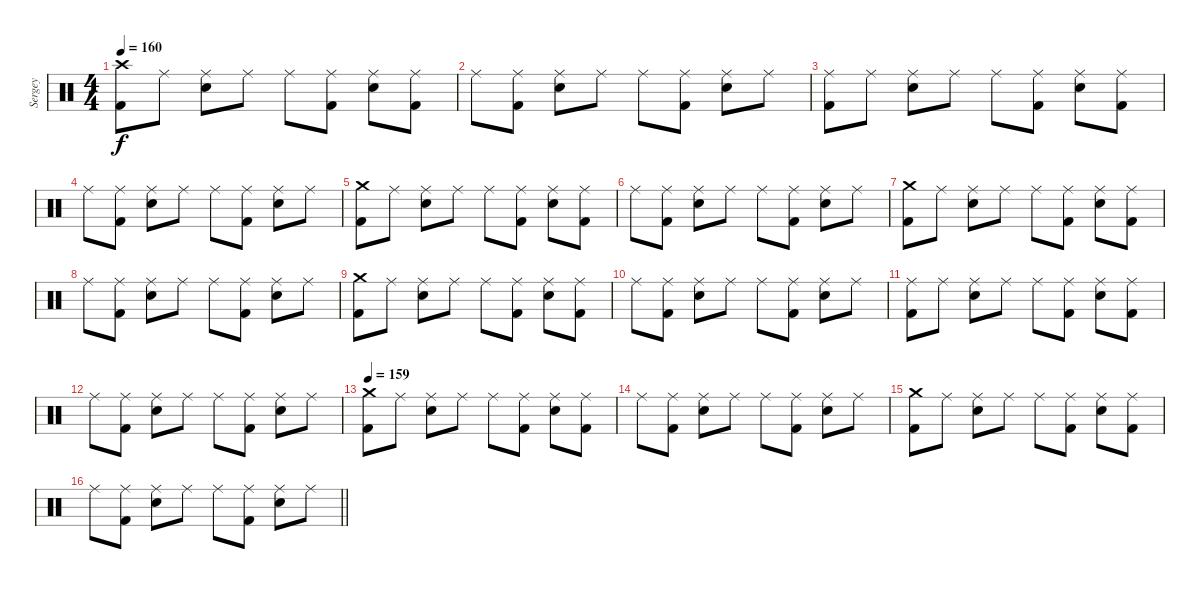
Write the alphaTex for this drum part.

\track ("Sergey" "Sergey") {instrument percussion}
\staff {score}
\articulation defaults
\ts (4 4)
\section ("" "")
\tempo 160
\clef neutral
\ks c
("Crash high (hit)" "Kick (hit) 2").8{dy f} "Ride (middle)".8 ("Ride (middle)" "Electric Snare (hit)").8 "Ride (middle)".8 "Ride (middle)".8 ("Ride (middle)" "Kick (hit) 2").8 ("Ride (middle)" "Electric Snare (hit)").8 ("Ride (middle)" "Kick (hit) 2").8 |
"Ride (middle)".8 ("Ride (middle)" "Kick (hit) 2").8 ("Ride (middle)" "Electric Snare (hit)").8 "Ride (middle)".8 "Ride (middle)".8 ("Ride (middle)" "Kick (hit) 2").8 ("Ride (middle)" "Electric Snare (hit)").8 "Ride (middle)".8 |
("Ride (middle)" "Kick (hit) 2").8 "Ride (middle)".8 ("Ride (middle)" "Electric Snare (hit)").8 "Ride (middle)".8 "Ride (middle)".8 ("Ride (middle)" "Kick (hit) 2").8 ("Ride (middle)" "Electric Snare (hit)").8 ("Ride (middle)" "Kick (hit) 2").8 |
"Ride (middle)".8 ("Ride (middle)" "Kick (hit) 2").8 ("Ride (middle)" "Electric Snare (hit)").8 "Ride (middle)".8 "Ride (middle)".8 ("Ride (middle)" "Kick (hit) 2").8 ("Ride (middle)" "Electric Snare (hit)").8 "Ride (middle)".8 |
("Crash medium (hit)" "Kick (hit) 2").8 "Ride (middle)".8 ("Ride (middle)" "Electric Snare (hit)").8 "Ride (middle)".8 "Ride (middle)".8 ("Ride (middle)" "Kick (hit) 2").8 ("Ride (middle)" "Electric Snare (hit)").8 ("Ride (middle)" "Kick (hit) 2").8 |
"Ride (middle)".8 ("Ride (middle)" "Kick (hit) 2").8 ("Ride (middle)" "Electric Snare (hit)").8 "Ride (middle)".8 "Ride (middle)".8 ("Ride (middle)" "Kick (hit) 2").8 ("Ride (middle)" "Electric Snare (hit)").8 "Ride (middle)".8 |
("Crash medium (hit)" "Kick (hit) 2").8 "Ride (middle)".8 ("Ride (middle)" "Electric Snare (hit)").8 "Ride (middle)".8 "Ride (middle)".8 ("Ride (middle)" "Kick (hit) 2").8 ("Ride (middle)" "Electric Snare (hit)").8 ("Ride (middle)" "Kick (hit) 2").8 |
"Ride (middle)".8 ("Ride (middle)" "Kick (hit) 2").8 ("Ride (middle)" "Electric Snare (hit)").8 "Ride (middle)".8 "Ride (middle)".8 ("Ride (middle)" "Kick (hit) 2").8 ("Ride (middle)" "Electric Snare (hit)").8 "Ride (middle)".8 |
("Crash medium (hit)" "Kick (hit) 2").8 "Ride (middle)".8 ("Ride (middle)" "Electric Snare (hit)").8 "Ride (middle)".8 "Ride (middle)".8 ("Ride (middle)" "Kick (hit) 2").8 ("Ride (middle)" "Electric Snare (hit)").8 ("Ride (middle)" "Kick (hit) 2").8 |
"Ride (middle)".8 ("Ride (middle)" "Kick (hit) 2").8 ("Ride (middle)" "Electric Snare (hit)").8 "Ride (middle)".8 "Ride (middle)".8 ("Ride (middle)" "Kick (hit) 2").8 ("Ride (middle)" "Electric Snare (hit)").8 "Ride (middle)".8 |
("Ride (middle)" "Kick (hit) 2").8 "Ride (middle)".8 ("Ride (middle)" "Electric Snare (hit)").8 "Ride (middle)".8 "Ride (middle)".8 ("Ride (middle)" "Kick (hit) 2").8 ("Ride (middle)" "Electric Snare (hit)").8 ("Ride (middle)" "Kick (hit) 2").8 |
"Ride (middle)".8 ("Ride (middle)" "Kick (hit) 2").8 ("Ride (middle)" "Electric Snare (hit)").8 "Ride (middle)".8 "Ride (middle)".8 ("Ride (middle)" "Kick (hit) 2").8 ("Ride (middle)" "Electric Snare (hit)").8 "Ride (middle)".8 |
\tempo 159
("Crash medium (hit)" "Kick (hit) 2").8 "Ride (middle)".8 ("Ride (middle)" "Electric Snare (hit)").8 "Ride (middle)".8 "Ride (middle)".8 ("Ride (middle)" "Kick (hit) 2").8 ("Ride (middle)" "Electric Snare (hit)").8 ("Ride (middle)" "Kick (hit) 2").8 |
"Ride (middle)".8 ("Ride (middle)" "Kick (hit) 2").8 ("Ride (middle)" "Electric Snare (hit)").8 "Ride (middle)".8 "Ride (middle)".8 ("Ride (middle)" "Kick (hit) 2").8 ("Ride (middle)" "Electric Snare (hit)").8 "Ride (middle)".8 |
("Crash medium (hit)" "Kick (hit) 2").8 "Ride (middle)".8 ("Ride (middle)" "Electric Snare (hit)").8 "Ride (middle)".8 "Ride (middle)".8 ("Ride (middle)" "Kick (hit) 2").8 ("Ride (middle)" "Electric Snare (hit)").8 ("Ride (middle)" "Kick (hit) 2").8 |
\barLineRight lightlight "Ride (middle)".8
("Ride (middle)" "Kick (hit) 2").8 ("Ride (middle)" "Electric Snare (hit)").8 "Ride (middle)".8 "Ride (middle)".8 ("Ride (middle)" "Kick (hit) 2").8 ("Ride (middle)" "Electric Snare (hit)").8 "Ride (middle)".8
